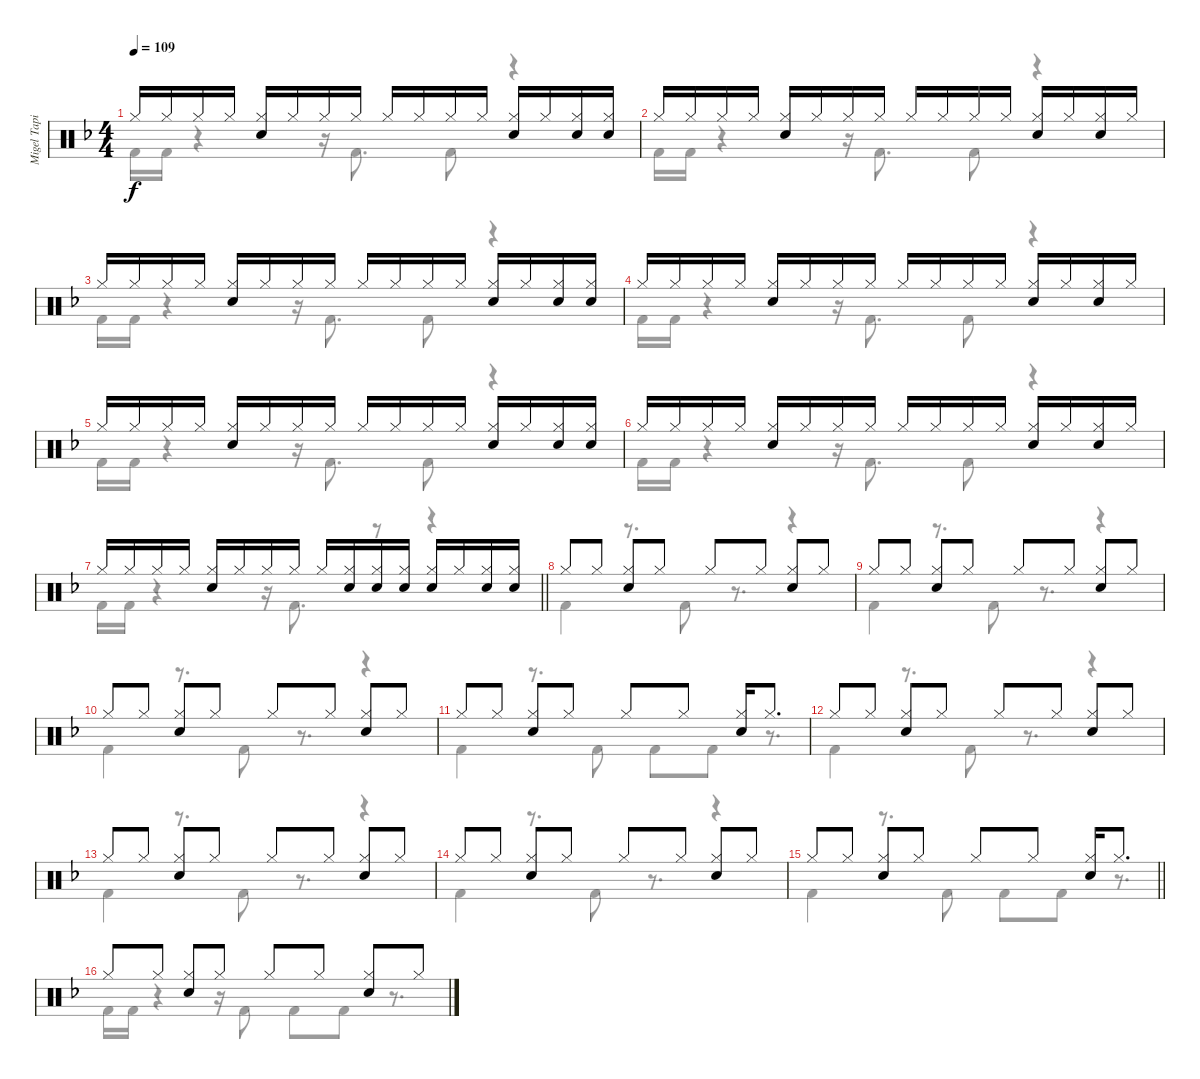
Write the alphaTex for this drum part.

\track ("Migel Tapia (Batería)" "Migel Tapi") {instrument percussion}
\staff {score}
\articulation defaults
\voice
\ts (4 4)
\tempo 109
\clef neutral
\ks dminor "Hi-Hat (closed)".16{dy f} "Hi-Hat (closed)".16 "Hi-Hat (closed)".16 "Hi-Hat (closed)".16
("Hi-Hat (closed)" "Snare (hit) 2").16 "Hi-Hat (closed)".16 "Hi-Hat (closed)".16 "Hi-Hat (closed)".16 "Hi-Hat (closed)".16 "Hi-Hat (closed)".16 "Hi-Hat (closed)".16 "Hi-Hat (closed)".16 ("Hi-Hat (closed)" "Snare (hit) 2").16 "Hi-Hat (closed)".16 ("Hi-Hat (closed)" "Snare (hit) 2").16 ("Hi-Hat (closed)" "Snare (hit) 2").16 |
"Hi-Hat (closed)".16 "Hi-Hat (closed)".16 "Hi-Hat (closed)".16 "Hi-Hat (closed)".16 ("Hi-Hat (closed)" "Snare (hit) 2").16 "Hi-Hat (closed)".16 "Hi-Hat (closed)".16 "Hi-Hat (closed)".16 "Hi-Hat (closed)".16 "Hi-Hat (closed)".16 "Hi-Hat (closed)".16 "Hi-Hat (closed)".16 ("Hi-Hat (closed)" "Snare (hit) 2").16 "Hi-Hat (closed)".16 ("Hi-Hat (closed)" "Snare (hit) 2").16 "Hi-Hat (closed)".16 |
"Hi-Hat (closed)".16 "Hi-Hat (closed)".16 "Hi-Hat (closed)".16 "Hi-Hat (closed)".16 ("Hi-Hat (closed)" "Snare (hit) 2").16 "Hi-Hat (closed)".16 "Hi-Hat (closed)".16 "Hi-Hat (closed)".16 "Hi-Hat (closed)".16 "Hi-Hat (closed)".16 "Hi-Hat (closed)".16 "Hi-Hat (closed)".16 ("Hi-Hat (closed)" "Snare (hit) 2").16 "Hi-Hat (closed)".16 ("Hi-Hat (closed)" "Snare (hit) 2").16 ("Hi-Hat (closed)" "Snare (hit) 2").16 |
"Hi-Hat (closed)".16 "Hi-Hat (closed)".16 "Hi-Hat (closed)".16 "Hi-Hat (closed)".16 ("Hi-Hat (closed)" "Snare (hit) 2").16 "Hi-Hat (closed)".16 "Hi-Hat (closed)".16 "Hi-Hat (closed)".16 "Hi-Hat (closed)".16 "Hi-Hat (closed)".16 "Hi-Hat (closed)".16 "Hi-Hat (closed)".16 ("Hi-Hat (closed)" "Snare (hit) 2").16 "Hi-Hat (closed)".16 ("Hi-Hat (closed)" "Snare (hit) 2").16 "Hi-Hat (closed)".16 |
"Hi-Hat (closed)".16 "Hi-Hat (closed)".16 "Hi-Hat (closed)".16 "Hi-Hat (closed)".16 ("Hi-Hat (closed)" "Snare (hit) 2").16 "Hi-Hat (closed)".16 "Hi-Hat (closed)".16 "Hi-Hat (closed)".16 "Hi-Hat (closed)".16 "Hi-Hat (closed)".16 "Hi-Hat (closed)".16 "Hi-Hat (closed)".16 ("Hi-Hat (closed)" "Snare (hit) 2").16 "Hi-Hat (closed)".16 ("Hi-Hat (closed)" "Snare (hit) 2").16 ("Hi-Hat (closed)" "Snare (hit) 2").16 |
"Hi-Hat (closed)".16 "Hi-Hat (closed)".16 "Hi-Hat (closed)".16 "Hi-Hat (closed)".16 ("Hi-Hat (closed)" "Snare (hit) 2").16 "Hi-Hat (closed)".16 "Hi-Hat (closed)".16 "Hi-Hat (closed)".16 "Hi-Hat (closed)".16 "Hi-Hat (closed)".16 "Hi-Hat (closed)".16 "Hi-Hat (closed)".16 ("Hi-Hat (closed)" "Snare (hit) 2").16 "Hi-Hat (closed)".16 ("Hi-Hat (closed)" "Snare (hit) 2").16 "Hi-Hat (closed)".16 |
\barLineRight lightlight "Hi-Hat (closed)".16 "Hi-Hat (closed)".16 "Hi-Hat (closed)".16 "Hi-Hat (closed)".16
("Hi-Hat (closed)" "Snare (hit) 2").16 "Hi-Hat (closed)".16 "Hi-Hat (closed)".16 "Hi-Hat (closed)".16 "Hi-Hat (closed)".16 ("Hi-Hat (closed)" "Snare (hit) 2").16 ("Hi-Hat (closed)" "Snare (hit) 2").16 ("Hi-Hat (closed)" "Snare (hit) 2").16 ("Hi-Hat (closed)" "Snare (hit) 2").16 "Hi-Hat (closed)".16 ("Hi-Hat (closed)" "Snare (hit) 2").16 ("Hi-Hat (closed)" "Snare (hit) 2").16 |
"Hi-Hat (closed)".8 "Hi-Hat (closed)".8 ("Hi-Hat (closed)" "Snare (hit) 2").8 "Hi-Hat (closed)".8 "Hi-Hat (closed)".8 "Hi-Hat (closed)".8 ("Hi-Hat (closed)" "Snare (hit) 2").8 "Hi-Hat (closed)".8 |
"Hi-Hat (closed)".8 "Hi-Hat (closed)".8 ("Hi-Hat (closed)" "Snare (hit) 2").8 "Hi-Hat (closed)".8 "Hi-Hat (closed)".8 "Hi-Hat (closed)".8 ("Hi-Hat (closed)" "Snare (hit) 2").8 "Hi-Hat (closed)".8 |
"Hi-Hat (closed)".8 "Hi-Hat (closed)".8 ("Hi-Hat (closed)" "Snare (hit) 2").8 "Hi-Hat (closed)".8 "Hi-Hat (closed)".8 "Hi-Hat (closed)".8 ("Hi-Hat (closed)" "Snare (hit) 2").8 "Hi-Hat (closed)".8 |
"Hi-Hat (closed)".8 "Hi-Hat (closed)".8 ("Hi-Hat (closed)" "Snare (hit) 2").8 "Hi-Hat (closed)".8 "Hi-Hat (closed)".8 "Hi-Hat (closed)".8 ("Hi-Hat (closed)" "Snare (hit) 2").16 "Hi-Hat (closed)".8{d} |
"Hi-Hat (closed)".8 "Hi-Hat (closed)".8 ("Hi-Hat (closed)" "Snare (hit) 2").8 "Hi-Hat (closed)".8 "Hi-Hat (closed)".8 "Hi-Hat (closed)".8 ("Hi-Hat (closed)" "Snare (hit) 2").8 "Hi-Hat (closed)".8 |
"Hi-Hat (closed)".8 "Hi-Hat (closed)".8 ("Hi-Hat (closed)" "Snare (hit) 2").8 "Hi-Hat (closed)".8 "Hi-Hat (closed)".8 "Hi-Hat (closed)".8 ("Hi-Hat (closed)" "Snare (hit) 2").8 "Hi-Hat (closed)".8 |
"Hi-Hat (closed)".8 "Hi-Hat (closed)".8 ("Hi-Hat (closed)" "Snare (hit) 2").8 "Hi-Hat (closed)".8 "Hi-Hat (closed)".8 "Hi-Hat (closed)".8 ("Hi-Hat (closed)" "Snare (hit) 2").8 "Hi-Hat (closed)".8 |
\barLineRight lightlight "Hi-Hat (closed)".8 "Hi-Hat (closed)".8
("Hi-Hat (closed)" "Snare (hit) 2").8 "Hi-Hat (closed)".8 "Hi-Hat (closed)".8 "Hi-Hat (closed)".8 ("Hi-Hat (closed)" "Snare (hit) 2").16 "Hi-Hat (closed)".8{d} |
"Hi-Hat (closed)".8 "Hi-Hat (closed)".8 ("Hi-Hat (closed)" "Snare (hit) 2").8 "Hi-Hat (closed)".8 "Hi-Hat (closed)".8 "Hi-Hat (closed)".8 ("Hi-Hat (closed)" "Snare (hit) 2").8 "Hi-Hat (closed)".8
\voice
\clef neutral
\ottava regular
\simile none
\ks dminor "Kick (hit) 2".16{dy f} "Kick (hit) 2".16
r.4 r.16 "Kick (hit) 2".8{d} "Kick (hit) 2".8 r.4 |
"Kick (hit) 2".16 "Kick (hit) 2".16 r.4 r.16 "Kick (hit) 2".8{d} "Kick (hit) 2".8 r.4 |
"Kick (hit) 2".16 "Kick (hit) 2".16 r.4 r.16 "Kick (hit) 2".8{d} "Kick (hit) 2".8 r.4 |
"Kick (hit) 2".16 "Kick (hit) 2".16 r.4 r.16 "Kick (hit) 2".8{d} "Kick (hit) 2".8 r.4 |
"Kick (hit) 2".16 "Kick (hit) 2".16 r.4 r.16 "Kick (hit) 2".8{d} "Kick (hit) 2".8 r.4 |
"Kick (hit) 2".16 "Kick (hit) 2".16 r.4 r.16 "Kick (hit) 2".8{d} "Kick (hit) 2".8 r.4 |
\barLineRight lightlight "Kick (hit) 2".16 "Kick (hit) 2".16
r.4 r.16 "Kick (hit) 2".8{d} r.8 r.4 |
"Kick (hit) 2".4 r.8{d} "Kick (hit) 2".8 r.8{d} r.4 |
"Kick (hit) 2".4 r.8{d} "Kick (hit) 2".8 r.8{d} r.4 |
"Kick (hit) 2".4 r.8{d} "Kick (hit) 2".8 r.8{d} r.4 |
"Kick (hit) 2".4 r.8{d} "Kick (hit) 2".8 "Kick (hit) 2".8 "Kick (hit) 2".8 r.8{d} |
"Kick (hit) 2".4 r.8{d} "Kick (hit) 2".8 r.8{d} r.4 |
"Kick (hit) 2".4 r.8{d} "Kick (hit) 2".8 r.8{d} r.4 |
"Kick (hit) 2".4 r.8{d} "Kick (hit) 2".8 r.8{d} r.4 |
\barLineRight lightlight "Kick (hit) 2".4
r.8{d} "Kick (hit) 2".8 "Kick (hit) 2".8 "Kick (hit) 2".8 r.8{d} |
"Kick (hit) 2".16 "Kick (hit) 2".16 r.4 r.16 "Kick (hit) 2".8 "Kick (hit) 2".8 "Kick (hit) 2".8 r.8{d}
